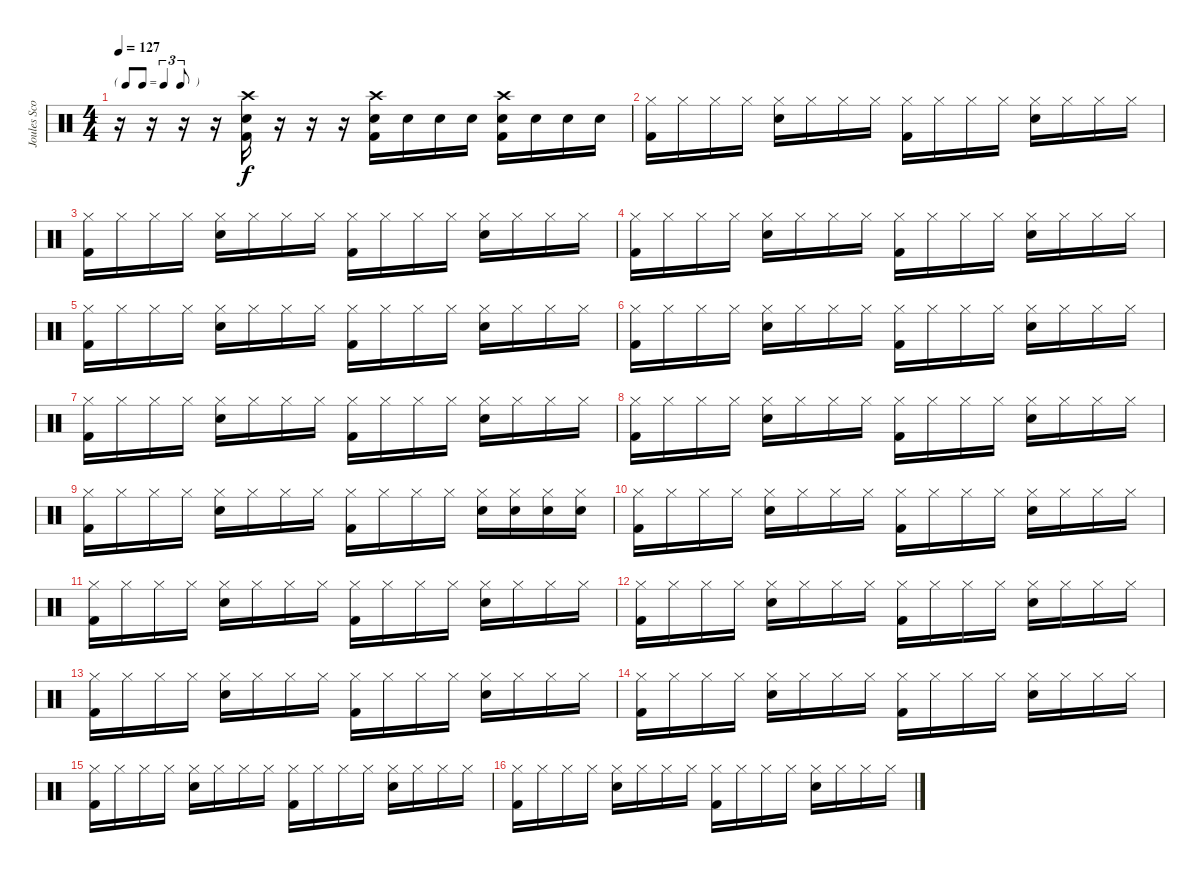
\track ("Joules Scott-Key" "Joules Sco") {instrument percussion}
\staff {score}
\articulation defaults
\ts (4 4)
\tf triplet8th
\tempo 127
\clef neutral
\ks c
r.16{dy f} r.16 r.16 r.16 ("Crash high (hit)" "Hand Clap (hit)" "Kick (hit) 2").16 r.16 r.16 r.16 ("Crash high (hit)" "Electric Snare (hit)" "Kick (hit) 2").16 "Electric Snare (hit)".16 "Electric Snare (hit)".16 "Electric Snare (hit)".16 ("Crash high (hit)" "Electric Snare (hit)" "Kick (hit) 2").16 "Electric Snare (hit)".16 "Electric Snare (hit)".16 "Electric Snare (hit)".16 |
("Hi-Hat (closed)" "Kick (hit) 2").16 "Hi-Hat (closed)".16 "Hi-Hat (closed)".16 "Hi-Hat (closed)".16 ("Hi-Hat (closed)" "Electric Snare (hit)").16 "Hi-Hat (closed)".16 "Hi-Hat (closed)".16 "Hi-Hat (closed)".16 ("Hi-Hat (closed)" "Kick (hit) 2").16 "Hi-Hat (closed)".16 "Hi-Hat (closed)".16 "Hi-Hat (closed)".16 ("Hi-Hat (closed)" "Electric Snare (hit)").16 "Hi-Hat (closed)".16 "Hi-Hat (closed)".16 "Hi-Hat (closed)".16 |
("Hi-Hat (closed)" "Kick (hit) 2").16 "Hi-Hat (closed)".16 "Hi-Hat (closed)".16 "Hi-Hat (closed)".16 ("Hi-Hat (closed)" "Electric Snare (hit)").16 "Hi-Hat (closed)".16 "Hi-Hat (closed)".16 "Hi-Hat (closed)".16 ("Hi-Hat (closed)" "Kick (hit) 2").16 "Hi-Hat (closed)".16 "Hi-Hat (closed)".16 "Hi-Hat (closed)".16 ("Hi-Hat (closed)" "Electric Snare (hit)").16 "Hi-Hat (closed)".16 "Hi-Hat (closed)".16 "Hi-Hat (closed)".16 |
("Hi-Hat (closed)" "Kick (hit) 2").16 "Hi-Hat (closed)".16 "Hi-Hat (closed)".16 "Hi-Hat (closed)".16 ("Hi-Hat (closed)" "Electric Snare (hit)").16 "Hi-Hat (closed)".16 "Hi-Hat (closed)".16 "Hi-Hat (closed)".16 ("Hi-Hat (closed)" "Kick (hit) 2").16 "Hi-Hat (closed)".16 "Hi-Hat (closed)".16 "Hi-Hat (closed)".16 ("Hi-Hat (closed)" "Electric Snare (hit)").16 "Hi-Hat (closed)".16 "Hi-Hat (closed)".16 "Hi-Hat (closed)".16 |
("Hi-Hat (closed)" "Kick (hit) 2").16 "Hi-Hat (closed)".16 "Hi-Hat (closed)".16 "Hi-Hat (closed)".16 ("Hi-Hat (closed)" "Electric Snare (hit)").16 "Hi-Hat (closed)".16 "Hi-Hat (closed)".16 "Hi-Hat (closed)".16 ("Hi-Hat (closed)" "Kick (hit) 2").16 "Hi-Hat (closed)".16 "Hi-Hat (closed)".16 "Hi-Hat (closed)".16 ("Hi-Hat (closed)" "Electric Snare (hit)").16 "Hi-Hat (closed)".16 "Hi-Hat (closed)".16 "Hi-Hat (closed)".16 |
("Hi-Hat (closed)" "Kick (hit) 2").16 "Hi-Hat (closed)".16 "Hi-Hat (closed)".16 "Hi-Hat (closed)".16 ("Hi-Hat (closed)" "Electric Snare (hit)").16 "Hi-Hat (closed)".16 "Hi-Hat (closed)".16 "Hi-Hat (closed)".16 ("Hi-Hat (closed)" "Kick (hit) 2").16 "Hi-Hat (closed)".16 "Hi-Hat (closed)".16 "Hi-Hat (closed)".16 ("Hi-Hat (closed)" "Electric Snare (hit)").16 "Hi-Hat (closed)".16 "Hi-Hat (closed)".16 "Hi-Hat (closed)".16 |
("Hi-Hat (closed)" "Kick (hit) 2").16 "Hi-Hat (closed)".16 "Hi-Hat (closed)".16 "Hi-Hat (closed)".16 ("Hi-Hat (closed)" "Electric Snare (hit)").16 "Hi-Hat (closed)".16 "Hi-Hat (closed)".16 "Hi-Hat (closed)".16 ("Hi-Hat (closed)" "Kick (hit) 2").16 "Hi-Hat (closed)".16 "Hi-Hat (closed)".16 "Hi-Hat (closed)".16 ("Hi-Hat (closed)" "Electric Snare (hit)").16 "Hi-Hat (closed)".16 "Hi-Hat (closed)".16 "Hi-Hat (closed)".16 |
("Hi-Hat (closed)" "Kick (hit) 2").16 "Hi-Hat (closed)".16 "Hi-Hat (closed)".16 "Hi-Hat (closed)".16 ("Hi-Hat (closed)" "Electric Snare (hit)").16 "Hi-Hat (closed)".16 "Hi-Hat (closed)".16 "Hi-Hat (closed)".16 ("Hi-Hat (closed)" "Kick (hit) 2").16 "Hi-Hat (closed)".16 "Hi-Hat (closed)".16 "Hi-Hat (closed)".16 ("Hi-Hat (closed)" "Electric Snare (hit)").16 "Hi-Hat (closed)".16 "Hi-Hat (closed)".16 "Hi-Hat (closed)".16 |
("Hi-Hat (closed)" "Kick (hit) 2").16 "Hi-Hat (closed)".16 "Hi-Hat (closed)".16 "Hi-Hat (closed)".16 ("Hi-Hat (closed)" "Electric Snare (hit)").16 "Hi-Hat (closed)".16 "Hi-Hat (closed)".16 "Hi-Hat (closed)".16 ("Hi-Hat (closed)" "Kick (hit) 2").16 "Hi-Hat (closed)".16 "Hi-Hat (closed)".16 "Hi-Hat (closed)".16 ("Hi-Hat (closed)" "Electric Snare (hit)").16 ("Hi-Hat (closed)" "Electric Snare (hit)").16 ("Hi-Hat (closed)" "Electric Snare (hit)").16 ("Hi-Hat (closed)" "Electric Snare (hit)").16 |
("Hi-Hat (closed)" "Kick (hit) 2").16 "Hi-Hat (closed)".16 "Hi-Hat (closed)".16 "Hi-Hat (closed)".16 ("Hi-Hat (closed)" "Electric Snare (hit)").16 "Hi-Hat (closed)".16 "Hi-Hat (closed)".16 "Hi-Hat (closed)".16 ("Hi-Hat (closed)" "Kick (hit) 2").16 "Hi-Hat (closed)".16 "Hi-Hat (closed)".16 "Hi-Hat (closed)".16 ("Hi-Hat (closed)" "Electric Snare (hit)").16 "Hi-Hat (closed)".16 "Hi-Hat (closed)".16 "Hi-Hat (closed)".16 |
("Hi-Hat (closed)" "Kick (hit) 2").16 "Hi-Hat (closed)".16 "Hi-Hat (closed)".16 "Hi-Hat (closed)".16 ("Hi-Hat (closed)" "Electric Snare (hit)").16 "Hi-Hat (closed)".16 "Hi-Hat (closed)".16 "Hi-Hat (closed)".16 ("Hi-Hat (closed)" "Kick (hit) 2").16 "Hi-Hat (closed)".16 "Hi-Hat (closed)".16 "Hi-Hat (closed)".16 ("Hi-Hat (closed)" "Electric Snare (hit)").16 "Hi-Hat (closed)".16 "Hi-Hat (closed)".16 "Hi-Hat (closed)".16 |
("Hi-Hat (closed)" "Kick (hit) 2").16 "Hi-Hat (closed)".16 "Hi-Hat (closed)".16 "Hi-Hat (closed)".16 ("Hi-Hat (closed)" "Electric Snare (hit)").16 "Hi-Hat (closed)".16 "Hi-Hat (closed)".16 "Hi-Hat (closed)".16 ("Hi-Hat (closed)" "Kick (hit) 2").16 "Hi-Hat (closed)".16 "Hi-Hat (closed)".16 "Hi-Hat (closed)".16 ("Hi-Hat (closed)" "Electric Snare (hit)").16 "Hi-Hat (closed)".16 "Hi-Hat (closed)".16 "Hi-Hat (closed)".16 |
("Hi-Hat (closed)" "Kick (hit) 2").16 "Hi-Hat (closed)".16 "Hi-Hat (closed)".16 "Hi-Hat (closed)".16 ("Hi-Hat (closed)" "Electric Snare (hit)").16 "Hi-Hat (closed)".16 "Hi-Hat (closed)".16 "Hi-Hat (closed)".16 ("Hi-Hat (closed)" "Kick (hit) 2").16 "Hi-Hat (closed)".16 "Hi-Hat (closed)".16 "Hi-Hat (closed)".16 ("Hi-Hat (closed)" "Electric Snare (hit)").16 "Hi-Hat (closed)".16 "Hi-Hat (closed)".16 "Hi-Hat (closed)".16 |
("Hi-Hat (closed)" "Kick (hit) 2").16 "Hi-Hat (closed)".16 "Hi-Hat (closed)".16 "Hi-Hat (closed)".16 ("Hi-Hat (closed)" "Electric Snare (hit)").16 "Hi-Hat (closed)".16 "Hi-Hat (closed)".16 "Hi-Hat (closed)".16 ("Hi-Hat (closed)" "Kick (hit) 2").16 "Hi-Hat (closed)".16 "Hi-Hat (closed)".16 "Hi-Hat (closed)".16 ("Hi-Hat (closed)" "Electric Snare (hit)").16 "Hi-Hat (closed)".16 "Hi-Hat (closed)".16 "Hi-Hat (closed)".16 |
("Hi-Hat (closed)" "Kick (hit) 2").16 "Hi-Hat (closed)".16 "Hi-Hat (closed)".16 "Hi-Hat (closed)".16 ("Hi-Hat (closed)" "Electric Snare (hit)").16 "Hi-Hat (closed)".16 "Hi-Hat (closed)".16 "Hi-Hat (closed)".16 ("Hi-Hat (closed)" "Kick (hit) 2").16 "Hi-Hat (closed)".16 "Hi-Hat (closed)".16 "Hi-Hat (closed)".16 ("Hi-Hat (closed)" "Electric Snare (hit)").16 "Hi-Hat (closed)".16 "Hi-Hat (closed)".16 "Hi-Hat (closed)".16 |
("Hi-Hat (closed)" "Kick (hit) 2").16 "Hi-Hat (closed)".16 "Hi-Hat (closed)".16 "Hi-Hat (closed)".16 ("Hi-Hat (closed)" "Electric Snare (hit)").16 "Hi-Hat (closed)".16 "Hi-Hat (closed)".16 "Hi-Hat (closed)".16 ("Hi-Hat (closed)" "Kick (hit) 2").16 "Hi-Hat (closed)".16 "Hi-Hat (closed)".16 "Hi-Hat (closed)".16 ("Hi-Hat (closed)" "Electric Snare (hit)").16 "Hi-Hat (closed)".16 "Hi-Hat (closed)".16 "Hi-Hat (closed)".16
